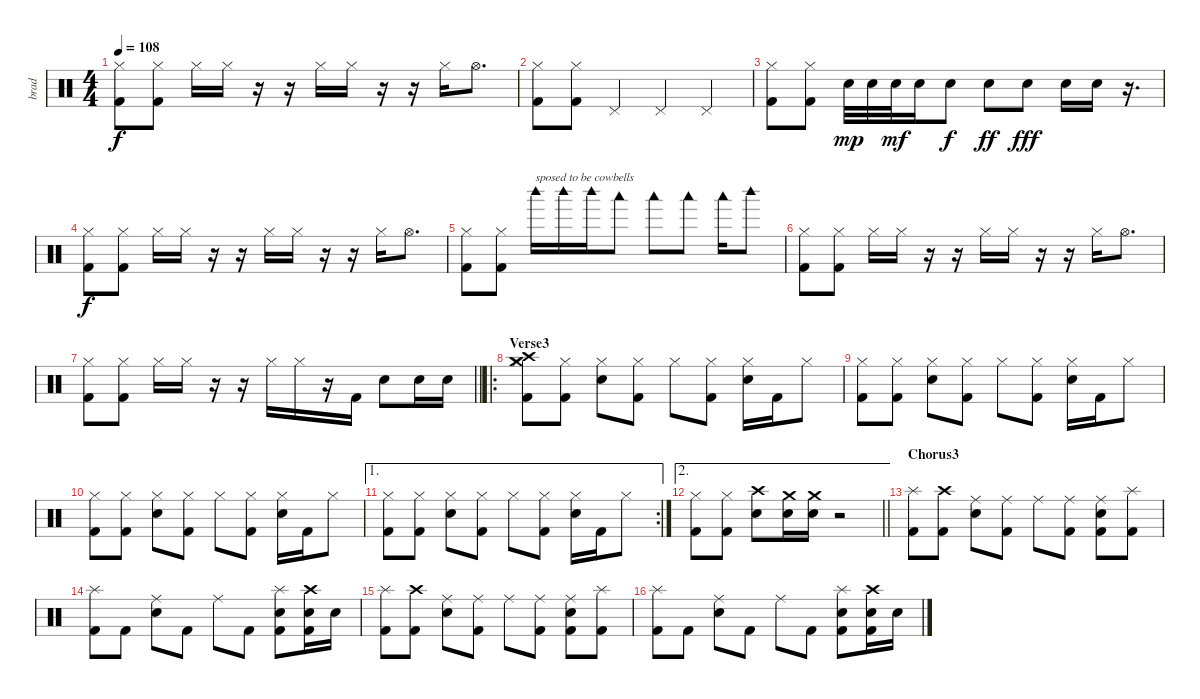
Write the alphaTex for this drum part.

\track ("brad" "brad") {instrument percussion}
\staff {score}
\articulation defaults
\ts (4 4)
\tempo 108
\clef neutral
\ks c
("Hi-Hat (closed)" "Kick (hit) 2").8{dy f} ("Hi-Hat (closed)" "Kick (hit) 2").8 "Hi-Hat (closed)".16 "Hi-Hat (closed)".16 r.16 r.16 "Hi-Hat (closed)".16 "Hi-Hat (closed)".16 r.16 r.16 "Hi-Hat (closed)".16 "Hi-Hat (open)".8{d} |
("Hi-Hat (closed)" "Kick (hit) 2").8 ("Hi-Hat (closed)" "Kick (hit) 2").8 "Pedal Hi-Hat (hit)".4 "Pedal Hi-Hat (hit)".4 "Pedal Hi-Hat (hit)".4 |
("Hi-Hat (closed)" "Kick (hit) 2").8 ("Hi-Hat (closed)" "Kick (hit) 2").8 "Electric Snare (hit)".32{dy mp} "Electric Snare (hit)".32 "Electric Snare (hit)".32{dy mf} "Electric Snare (hit)".16 "Electric Snare (hit)".8{dy f} "Electric Snare (hit)".8{dy ff} "Electric Snare (hit)".8{dy fff} "Electric Snare (hit)".16 "Electric Snare (hit)".16 r.16{d} |
("Hi-Hat (closed)" "Kick (hit) 2").8{dy f} ("Hi-Hat (closed)" "Kick (hit) 2").8 "Hi-Hat (closed)".16 "Hi-Hat (closed)".16 r.16 r.16 "Hi-Hat (closed)".16 "Hi-Hat (closed)".16 r.16 r.16 "Hi-Hat (closed)".16 "Hi-Hat (open)".8{d} |
("Hi-Hat (closed)" "Kick (hit) 2").8 ("Hi-Hat (closed)" "Kick (hit) 2").8 "Woodblock high (hit)".16{txt "sposed to be cowbells"} "Woodblock high (hit)".16 "Woodblock high (hit)".16 "Woodblock low (hit)".8 "Woodblock low (hit)".8 "Woodblock low (hit)".8 "Woodblock low (hit)".16 "Woodblock high (hit)".8 |
("Hi-Hat (closed)" "Kick (hit) 2").8 ("Hi-Hat (closed)" "Kick (hit) 2").8 "Hi-Hat (closed)".16 "Hi-Hat (closed)".16 r.16 r.16 "Hi-Hat (closed)".16 "Hi-Hat (closed)".16 r.16 r.16 "Hi-Hat (closed)".16 "Hi-Hat (open)".8{d} |
\barLineRight lightlight
("Hi-Hat (closed)" "Kick (hit) 2").8 ("Hi-Hat (closed)" "Kick (hit) 2").8 "Hi-Hat (closed)".16 "Hi-Hat (closed)".16 r.16 r.16 "Hi-Hat (closed)".16 "Hi-Hat (closed)".16 r.16 "Kick (hit) 2".16 "Electric Snare (hit)".8 "Electric Snare (hit)".16 "Electric Snare (hit)".16 |
\ro
\section ("" "Verse3")
("Crash medium (hit)" "Crash high (hit)" "Hi-Hat (closed)" "Kick (hit) 2").8 ("Hi-Hat (closed)" "Kick (hit) 2").8 ("Hi-Hat (closed)" "Electric Snare (hit)").8 ("Hi-Hat (closed)" "Kick (hit) 2").8 "Hi-Hat (closed)".8 ("Hi-Hat (closed)" "Kick (hit) 2").8 ("Hi-Hat (closed)" "Electric Snare (hit)").16 "Kick (hit) 2".16 "Hi-Hat (closed)".8 |
("Hi-Hat (closed)" "Kick (hit) 2").8 ("Hi-Hat (closed)" "Kick (hit) 2").8 ("Hi-Hat (closed)" "Electric Snare (hit)").8 ("Hi-Hat (closed)" "Kick (hit) 2").8 "Hi-Hat (closed)".8 ("Hi-Hat (closed)" "Kick (hit) 2").8 ("Hi-Hat (closed)" "Electric Snare (hit)").16 "Kick (hit) 2".16 "Hi-Hat (closed)".8 |
("Hi-Hat (closed)" "Kick (hit) 2").8 ("Hi-Hat (closed)" "Kick (hit) 2").8 ("Hi-Hat (closed)" "Electric Snare (hit)").8 ("Hi-Hat (closed)" "Kick (hit) 2").8 "Hi-Hat (closed)".8 ("Hi-Hat (closed)" "Kick (hit) 2").8 ("Hi-Hat (closed)" "Electric Snare (hit)").16 "Kick (hit) 2".16 "Hi-Hat (closed)".8 |
\ae 1
\rc 2
("Hi-Hat (closed)" "Kick (hit) 2").8 ("Hi-Hat (closed)" "Kick (hit) 2").8 ("Hi-Hat (closed)" "Electric Snare (hit)").8 ("Hi-Hat (closed)" "Kick (hit) 2").8 "Hi-Hat (closed)".8 ("Hi-Hat (closed)" "Kick (hit) 2").8 ("Hi-Hat (closed)" "Electric Snare (hit)").16 "Kick (hit) 2".16 "Hi-Hat (closed)".8 |
\ae 2
\barLineRight lightlight
("Hi-Hat (closed)" "Kick (hit) 2").8 ("Hi-Hat (closed)" "Kick (hit) 2").8 ("Crash high (hit)" "Electric Snare (hit)").8 ("Crash medium (hit)" "Electric Snare (hit)").16 ("Crash medium (hit)" "Electric Snare (hit)").16 r.2 |
\section ("" "Chorus3")
("Splash (hit)" "Kick (hit) 2").8 ("Crash high (hit)" "Kick (hit) 2").8 ("Ride (middle)" "Electric Snare (hit)").8 ("Ride (middle)" "Kick (hit) 2").8 "Ride (middle)".8 ("Ride (middle)" "Kick (hit) 2").8 ("Ride (middle)" "Electric Snare (hit)" "Kick (hit) 2").8 ("Splash (hit)" "Kick (hit) 2").8 |
("Splash (hit)" "Kick (hit) 2").8 "Kick (hit) 2".8 ("Ride (middle)" "Electric Snare (hit)").8 "Kick (hit) 2".8 "Ride (middle)".8 "Kick (hit) 2".8 ("Splash (hit)" "Electric Snare (hit)" "Kick (hit) 2").8 ("Crash high (hit)" "Electric Snare (hit)" "Kick (hit) 2").16 "Electric Snare (hit)".16 |
("Splash (hit)" "Kick (hit) 2").8 ("Crash high (hit)" "Kick (hit) 2").8 ("Ride (middle)" "Electric Snare (hit)").8 ("Ride (middle)" "Kick (hit) 2").8 "Ride (middle)".8 ("Ride (middle)" "Kick (hit) 2").8 ("Ride (middle)" "Electric Snare (hit)" "Kick (hit) 2").8 ("Splash (hit)" "Kick (hit) 2").8 |
("Splash (hit)" "Kick (hit) 2").8 "Kick (hit) 2".8 ("Ride (middle)" "Electric Snare (hit)").8 "Kick (hit) 2".8 "Ride (middle)".8 "Kick (hit) 2".8 ("Splash (hit)" "Electric Snare (hit)" "Kick (hit) 2").8 ("Crash high (hit)" "Electric Snare (hit)" "Kick (hit) 2").16 "Electric Snare (hit)".16
